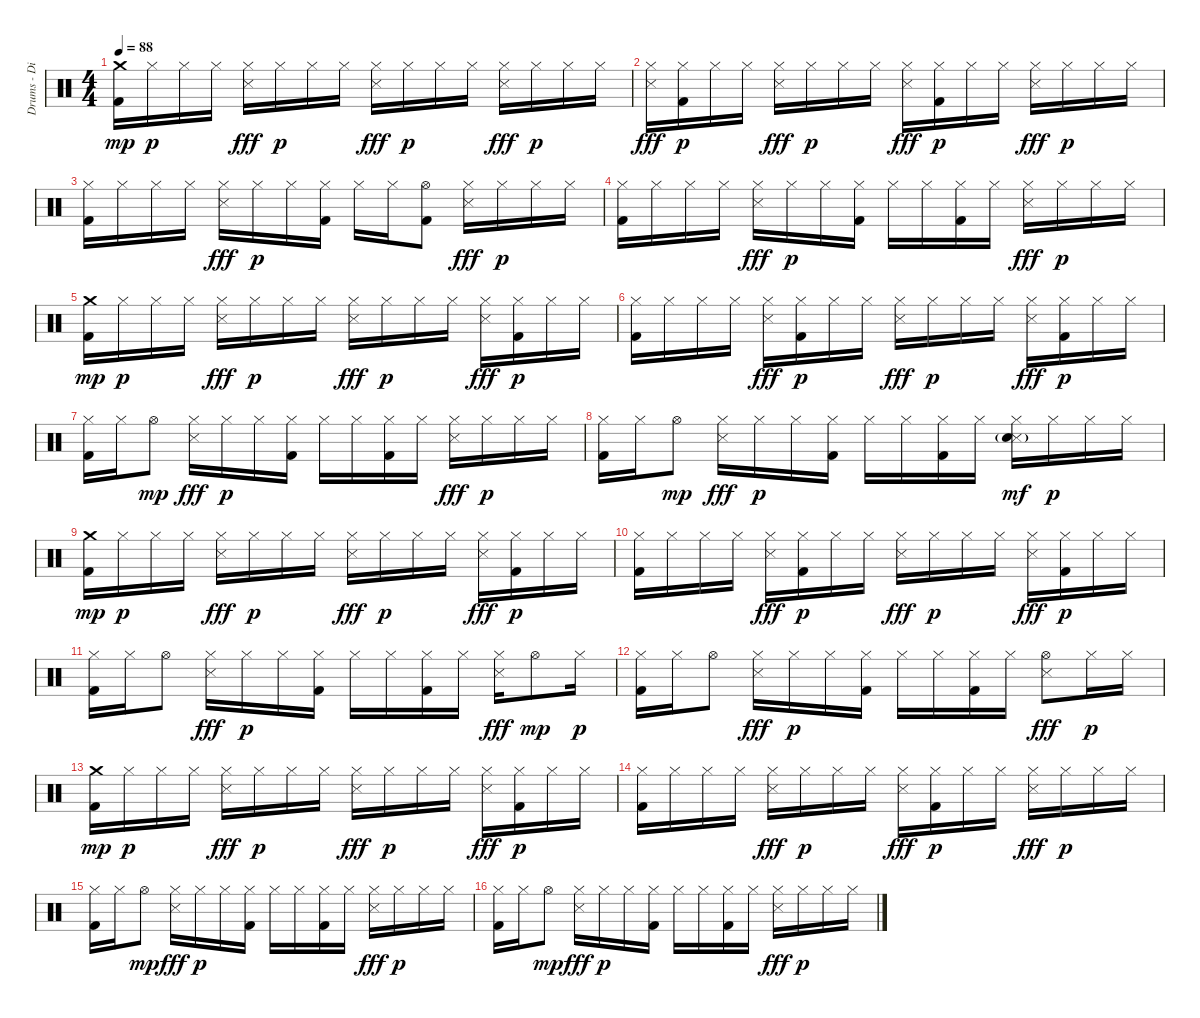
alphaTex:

\track ("Drums - Dino Campanella" "Drums - Di") {instrument percussion}
\staff {score}
\articulation defaults
\ts (4 4)
\tempo 88
\clef neutral
\ks c
("Crash medium (hit)" "Kick (hit) 2").16{dy mp} "Hi-Hat (closed)".16{dy p} "Hi-Hat (closed)".16 "Hi-Hat (closed)".16 ("Hi-Hat (closed)" "Snare (side stick) 3").16{dy fff} "Hi-Hat (closed)".16{dy p} "Hi-Hat (closed)".16 "Hi-Hat (closed)".16 ("Hi-Hat (closed)" "Snare (side stick) 3").16{dy fff} "Hi-Hat (closed)".16{dy p} "Hi-Hat (closed)".16 "Hi-Hat (closed)".16 ("Hi-Hat (closed)" "Snare (side stick) 3").16{dy fff} "Hi-Hat (closed)".16{dy p} "Hi-Hat (closed)".16 "Hi-Hat (closed)".16 |
("Hi-Hat (closed)" "Snare (side stick) 3").16{dy fff} ("Hi-Hat (closed)" "Kick (hit) 2").16{dy p} "Hi-Hat (closed)".16 "Hi-Hat (closed)".16 ("Hi-Hat (closed)" "Snare (side stick) 3").16{dy fff} "Hi-Hat (closed)".16{dy p} "Hi-Hat (closed)".16 "Hi-Hat (closed)".16 ("Hi-Hat (closed)" "Snare (side stick) 3").16{dy fff} ("Hi-Hat (closed)" "Kick (hit) 2").16{dy p} "Hi-Hat (closed)".16 "Hi-Hat (closed)".16 ("Hi-Hat (closed)" "Snare (side stick) 3").16{dy fff} "Hi-Hat (closed)".16{dy p} "Hi-Hat (closed)".16 "Hi-Hat (closed)".16 |
("Hi-Hat (closed)" "Kick (hit) 2").16 "Hi-Hat (closed)".16 "Hi-Hat (closed)".16 "Hi-Hat (closed)".16 ("Hi-Hat (closed)" "Snare (side stick) 3").16{dy fff} "Hi-Hat (closed)".16{dy p} "Hi-Hat (closed)".16 ("Hi-Hat (closed)" "Kick (hit) 2").16 "Hi-Hat (closed)".16 "Hi-Hat (closed)".16 ("Hi-Hat (open)" "Kick (hit) 2").8 ("Hi-Hat (closed)" "Snare (side stick) 3").16{dy fff} "Hi-Hat (closed)".16{dy p} "Hi-Hat (closed)".16 "Hi-Hat (closed)".16 |
("Hi-Hat (closed)" "Kick (hit) 2").16 "Hi-Hat (closed)".16 "Hi-Hat (closed)".16 "Hi-Hat (closed)".16 ("Hi-Hat (closed)" "Snare (side stick) 3").16{dy fff} "Hi-Hat (closed)".16{dy p} "Hi-Hat (closed)".16 ("Hi-Hat (closed)" "Kick (hit) 2").16 "Hi-Hat (closed)".16 "Hi-Hat (closed)".16 ("Hi-Hat (closed)" "Kick (hit) 2").16 "Hi-Hat (closed)".16 ("Hi-Hat (closed)" "Snare (side stick) 3").16{dy fff} "Hi-Hat (closed)".16{dy p} "Hi-Hat (closed)".16 "Hi-Hat (closed)".16 |
("Crash medium (hit)" "Kick (hit) 2").16{dy mp} "Hi-Hat (closed)".16{dy p} "Hi-Hat (closed)".16 "Hi-Hat (closed)".16 ("Hi-Hat (closed)" "Snare (side stick) 3").16{dy fff} "Hi-Hat (closed)".16{dy p} "Hi-Hat (closed)".16 "Hi-Hat (closed)".16 ("Hi-Hat (closed)" "Snare (side stick) 3").16{dy fff} "Hi-Hat (closed)".16{dy p} "Hi-Hat (closed)".16 "Hi-Hat (closed)".16 ("Hi-Hat (closed)" "Snare (side stick) 3").16{dy fff} ("Hi-Hat (closed)" "Kick (hit) 2").16{dy p} "Hi-Hat (closed)".16 "Hi-Hat (closed)".16 |
("Hi-Hat (closed)" "Kick (hit) 2").16 "Hi-Hat (closed)".16 "Hi-Hat (closed)".16 "Hi-Hat (closed)".16 ("Hi-Hat (closed)" "Snare (side stick) 3").16{dy fff} ("Hi-Hat (closed)" "Kick (hit) 2").16{dy p} "Hi-Hat (closed)".16 "Hi-Hat (closed)".16 ("Hi-Hat (closed)" "Snare (side stick) 3").16{dy fff} "Hi-Hat (closed)".16{dy p} "Hi-Hat (closed)".16 "Hi-Hat (closed)".16 ("Hi-Hat (closed)" "Snare (side stick) 3").16{dy fff} ("Hi-Hat (closed)" "Kick (hit) 2").16{dy p} "Hi-Hat (closed)".16 "Hi-Hat (closed)".16 |
("Hi-Hat (closed)" "Kick (hit) 2").16 "Hi-Hat (closed)".16 "Hi-Hat (open)".8{dy mp} ("Hi-Hat (closed)" "Snare (side stick) 3").16{dy fff} "Hi-Hat (closed)".16{dy p} "Hi-Hat (closed)".16 ("Hi-Hat (closed)" "Kick (hit) 2").16 "Hi-Hat (closed)".16 "Hi-Hat (closed)".16 ("Hi-Hat (closed)" "Kick (hit) 2").16 "Hi-Hat (closed)".16 ("Hi-Hat (closed)" "Snare (side stick) 3").16{dy fff} "Hi-Hat (closed)".16{dy p} "Hi-Hat (closed)".16 "Hi-Hat (closed)".16 |
("Hi-Hat (closed)" "Kick (hit) 2").16 "Hi-Hat (closed)".16 "Hi-Hat (open)".8{dy mp} ("Hi-Hat (closed)" "Snare (side stick) 3").16{dy fff} "Hi-Hat (closed)".16{dy p} "Hi-Hat (closed)".16 ("Hi-Hat (closed)" "Kick (hit) 2").16 "Hi-Hat (closed)".16 "Hi-Hat (closed)".16 ("Hi-Hat (closed)" "Kick (hit) 2").16 "Hi-Hat (closed)".16 ("Hi-Hat (closed)" "Snare (side stick) 3" "Electric Snare (hit)"{g}).16{dy mf} "Hi-Hat (closed)".16{dy p} "Hi-Hat (closed)".16 "Hi-Hat (closed)".16 |
("Crash medium (hit)" "Kick (hit) 2").16{dy mp} "Hi-Hat (closed)".16{dy p} "Hi-Hat (closed)".16 "Hi-Hat (closed)".16 ("Hi-Hat (closed)" "Snare (side stick) 3").16{dy fff} "Hi-Hat (closed)".16{dy p} "Hi-Hat (closed)".16 "Hi-Hat (closed)".16 ("Hi-Hat (closed)" "Snare (side stick) 3").16{dy fff} "Hi-Hat (closed)".16{dy p} "Hi-Hat (closed)".16 "Hi-Hat (closed)".16 ("Hi-Hat (closed)" "Snare (side stick) 3").16{dy fff} ("Hi-Hat (closed)" "Kick (hit) 2").16{dy p} "Hi-Hat (closed)".16 "Hi-Hat (closed)".16 |
("Hi-Hat (closed)" "Kick (hit) 2").16 "Hi-Hat (closed)".16 "Hi-Hat (closed)".16 "Hi-Hat (closed)".16 ("Hi-Hat (closed)" "Snare (side stick) 3").16{dy fff} ("Hi-Hat (closed)" "Kick (hit) 2").16{dy p} "Hi-Hat (closed)".16 "Hi-Hat (closed)".16 ("Hi-Hat (closed)" "Snare (side stick) 3").16{dy fff} "Hi-Hat (closed)".16{dy p} "Hi-Hat (closed)".16 "Hi-Hat (closed)".16 ("Hi-Hat (closed)" "Snare (side stick) 3").16{dy fff} ("Hi-Hat (closed)" "Kick (hit) 2").16{dy p} "Hi-Hat (closed)".16 "Hi-Hat (closed)".16 |
("Hi-Hat (closed)" "Kick (hit) 2").16 "Hi-Hat (closed)".16 "Hi-Hat (open)".8 ("Hi-Hat (closed)" "Snare (side stick) 3").16{dy fff} "Hi-Hat (closed)".16{dy p} "Hi-Hat (closed)".16 ("Hi-Hat (closed)" "Kick (hit) 2").16 "Hi-Hat (closed)".16 "Hi-Hat (closed)".16 ("Hi-Hat (closed)" "Kick (hit) 2").16 "Hi-Hat (closed)".16 ("Hi-Hat (closed)" "Snare (side stick) 3").16{dy fff} "Hi-Hat (open)".8{dy mp} "Hi-Hat (closed)".16{dy p} |
("Hi-Hat (closed)" "Kick (hit) 2").16 "Hi-Hat (closed)".16 "Hi-Hat (open)".8 ("Hi-Hat (closed)" "Snare (side stick) 3").16{dy fff} "Hi-Hat (closed)".16{dy p} "Hi-Hat (closed)".16 ("Hi-Hat (closed)" "Kick (hit) 2").16 "Hi-Hat (closed)".16 "Hi-Hat (closed)".16 ("Hi-Hat (closed)" "Kick (hit) 2").16 "Hi-Hat (closed)".16 ("Hi-Hat (open)" "Snare (side stick) 3").8{dy fff} "Hi-Hat (closed)".16{dy p} "Hi-Hat (closed)".16 |
("Crash medium (hit)" "Kick (hit) 2").16{dy mp} "Hi-Hat (closed)".16{dy p} "Hi-Hat (closed)".16 "Hi-Hat (closed)".16 ("Hi-Hat (closed)" "Snare (side stick) 3").16{dy fff} "Hi-Hat (closed)".16{dy p} "Hi-Hat (closed)".16 "Hi-Hat (closed)".16 ("Hi-Hat (closed)" "Snare (side stick) 3").16{dy fff} "Hi-Hat (closed)".16{dy p} "Hi-Hat (closed)".16 "Hi-Hat (closed)".16 ("Hi-Hat (closed)" "Snare (side stick) 3").16{dy fff} ("Hi-Hat (closed)" "Kick (hit) 2").16{dy p} "Hi-Hat (closed)".16 "Hi-Hat (closed)".16 |
("Hi-Hat (closed)" "Kick (hit) 2").16 "Hi-Hat (closed)".16 "Hi-Hat (closed)".16 "Hi-Hat (closed)".16 ("Hi-Hat (closed)" "Snare (side stick) 3").16{dy fff} "Hi-Hat (closed)".16{dy p} "Hi-Hat (closed)".16 "Hi-Hat (closed)".16 ("Hi-Hat (closed)" "Snare (side stick) 3").16{dy fff} ("Hi-Hat (closed)" "Kick (hit) 2").16{dy p} "Hi-Hat (closed)".16 "Hi-Hat (closed)".16 ("Hi-Hat (closed)" "Snare (side stick) 3").16{dy fff} "Hi-Hat (closed)".16{dy p} "Hi-Hat (closed)".16 "Hi-Hat (closed)".16 |
("Hi-Hat (closed)" "Kick (hit) 2").16 "Hi-Hat (closed)".16 "Hi-Hat (open)".8{dy mp} ("Hi-Hat (closed)" "Snare (side stick) 3").16{dy fff} "Hi-Hat (closed)".16{dy p} "Hi-Hat (closed)".16 ("Hi-Hat (closed)" "Kick (hit) 2").16 "Hi-Hat (closed)".16 "Hi-Hat (closed)".16 ("Hi-Hat (closed)" "Kick (hit) 2").16 "Hi-Hat (closed)".16 ("Hi-Hat (closed)" "Snare (side stick) 3").16{dy fff} "Hi-Hat (closed)".16{dy p} "Hi-Hat (closed)".16 "Hi-Hat (closed)".16 |
("Hi-Hat (closed)" "Kick (hit) 2").16 "Hi-Hat (closed)".16 "Hi-Hat (open)".8{dy mp} ("Hi-Hat (closed)" "Snare (side stick) 3").16{dy fff} "Hi-Hat (closed)".16{dy p} "Hi-Hat (closed)".16 ("Hi-Hat (closed)" "Kick (hit) 2").16 "Hi-Hat (closed)".16 "Hi-Hat (closed)".16 ("Hi-Hat (closed)" "Kick (hit) 2").16 "Hi-Hat (closed)".16 ("Hi-Hat (closed)" "Snare (side stick) 3").16{dy fff} "Hi-Hat (closed)".16{dy p} "Hi-Hat (closed)".16 "Hi-Hat (closed)".16
